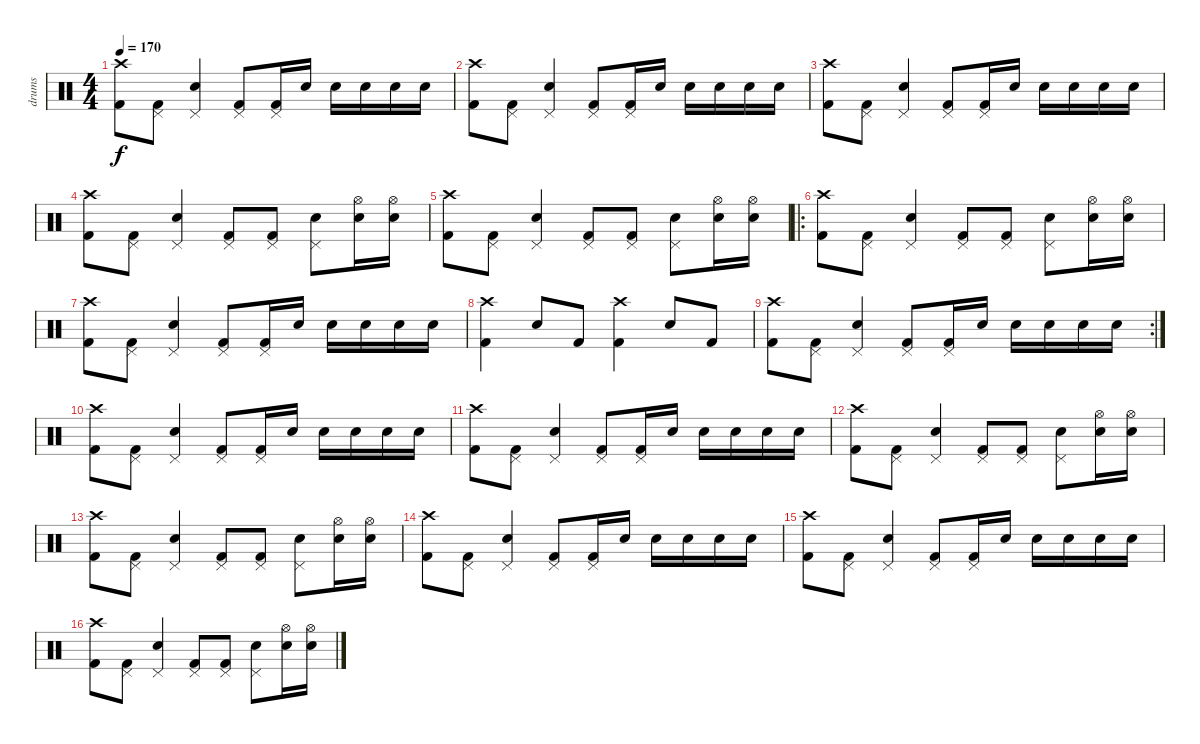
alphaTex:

\track ("drums" "drums") {instrument percussion}
\staff {score}
\articulation defaults
\ts (4 4)
\tempo 170
\clef neutral
\ks c
("Crash high (hit)" "Kick (hit) 2").8{dy f} ("Pedal Hi-Hat (hit)" "Kick (hit) 2").8 ("Pedal Hi-Hat (hit)" "Electric Snare (hit)").4 ("Pedal Hi-Hat (hit)" "Kick (hit) 2").8 ("Pedal Hi-Hat (hit)" "Kick (hit) 2").16 "Electric Snare (hit)".16 "Electric Snare (hit)".16 "Electric Snare (hit)".16 "Electric Snare (hit)".16 "Electric Snare (hit)".16 |
("Crash high (hit)" "Kick (hit) 2").8 ("Pedal Hi-Hat (hit)" "Kick (hit) 2").8 ("Pedal Hi-Hat (hit)" "Electric Snare (hit)").4 ("Pedal Hi-Hat (hit)" "Kick (hit) 2").8 ("Pedal Hi-Hat (hit)" "Kick (hit) 2").16 "Electric Snare (hit)".16 "Electric Snare (hit)".16 "Electric Snare (hit)".16 "Electric Snare (hit)".16 "Electric Snare (hit)".16 |
("Crash high (hit)" "Kick (hit) 2").8 ("Pedal Hi-Hat (hit)" "Kick (hit) 2").8 ("Pedal Hi-Hat (hit)" "Electric Snare (hit)").4 ("Pedal Hi-Hat (hit)" "Kick (hit) 2").8 ("Pedal Hi-Hat (hit)" "Kick (hit) 2").16 "Electric Snare (hit)".16 "Electric Snare (hit)".16 "Electric Snare (hit)".16 "Electric Snare (hit)".16 "Electric Snare (hit)".16 |
("Crash high (hit)" "Kick (hit) 2").8 ("Pedal Hi-Hat (hit)" "Kick (hit) 2").8 ("Pedal Hi-Hat (hit)" "Electric Snare (hit)").4 ("Pedal Hi-Hat (hit)" "Kick (hit) 2").8 ("Pedal Hi-Hat (hit)" "Kick (hit) 2").8 ("Pedal Hi-Hat (hit)" "Electric Snare (hit)").8 ("Hi-Hat (open)" "Electric Snare (hit)").16 ("Hi-Hat (open)" "Electric Snare (hit)").16 |
("Crash high (hit)" "Kick (hit) 2").8 ("Pedal Hi-Hat (hit)" "Kick (hit) 2").8 ("Pedal Hi-Hat (hit)" "Electric Snare (hit)").4 ("Pedal Hi-Hat (hit)" "Kick (hit) 2").8 ("Pedal Hi-Hat (hit)" "Kick (hit) 2").8 ("Pedal Hi-Hat (hit)" "Electric Snare (hit)").8 ("Hi-Hat (open)" "Electric Snare (hit)").16 ("Hi-Hat (open)" "Electric Snare (hit)").16 |
\ro
("Crash high (hit)" "Kick (hit) 2").8 ("Pedal Hi-Hat (hit)" "Kick (hit) 2").8 ("Pedal Hi-Hat (hit)" "Electric Snare (hit)").4 ("Pedal Hi-Hat (hit)" "Kick (hit) 2").8 ("Pedal Hi-Hat (hit)" "Kick (hit) 2").8 ("Pedal Hi-Hat (hit)" "Electric Snare (hit)").8 ("Hi-Hat (open)" "Electric Snare (hit)").16 ("Hi-Hat (open)" "Electric Snare (hit)").16 |
("Crash high (hit)" "Kick (hit) 2").8 ("Pedal Hi-Hat (hit)" "Kick (hit) 2").8 ("Pedal Hi-Hat (hit)" "Electric Snare (hit)").4 ("Pedal Hi-Hat (hit)" "Kick (hit) 2").8 ("Pedal Hi-Hat (hit)" "Kick (hit) 2").16 "Electric Snare (hit)".16 "Electric Snare (hit)".16 "Electric Snare (hit)".16 "Electric Snare (hit)".16 "Electric Snare (hit)".16 |
("Crash high (hit)" "Kick (hit) 2").4 "Electric Snare (hit)".8 "Kick (hit) 2".8 ("Crash high (hit)" "Kick (hit) 2").4 "Electric Snare (hit)".8 "Kick (hit) 2".8 |
\rc 2
("Crash high (hit)" "Kick (hit) 2").8 ("Pedal Hi-Hat (hit)" "Kick (hit) 2").8 ("Pedal Hi-Hat (hit)" "Electric Snare (hit)").4 ("Pedal Hi-Hat (hit)" "Kick (hit) 2").8 ("Pedal Hi-Hat (hit)" "Kick (hit) 2").16 "Electric Snare (hit)".16 "Electric Snare (hit)".16 "Electric Snare (hit)".16 "Electric Snare (hit)".16 "Electric Snare (hit)".16 |
("Crash high (hit)" "Kick (hit) 2").8 ("Pedal Hi-Hat (hit)" "Kick (hit) 2").8 ("Pedal Hi-Hat (hit)" "Electric Snare (hit)").4 ("Pedal Hi-Hat (hit)" "Kick (hit) 2").8 ("Pedal Hi-Hat (hit)" "Kick (hit) 2").16 "Electric Snare (hit)".16 "Electric Snare (hit)".16 "Electric Snare (hit)".16 "Electric Snare (hit)".16 "Electric Snare (hit)".16 |
("Crash high (hit)" "Kick (hit) 2").8 ("Pedal Hi-Hat (hit)" "Kick (hit) 2").8 ("Pedal Hi-Hat (hit)" "Electric Snare (hit)").4 ("Pedal Hi-Hat (hit)" "Kick (hit) 2").8 ("Pedal Hi-Hat (hit)" "Kick (hit) 2").16 "Electric Snare (hit)".16 "Electric Snare (hit)".16 "Electric Snare (hit)".16 "Electric Snare (hit)".16 "Electric Snare (hit)".16 |
("Crash high (hit)" "Kick (hit) 2").8 ("Pedal Hi-Hat (hit)" "Kick (hit) 2").8 ("Pedal Hi-Hat (hit)" "Electric Snare (hit)").4 ("Pedal Hi-Hat (hit)" "Kick (hit) 2").8 ("Pedal Hi-Hat (hit)" "Kick (hit) 2").8 ("Pedal Hi-Hat (hit)" "Electric Snare (hit)").8 ("Hi-Hat (open)" "Electric Snare (hit)").16 ("Hi-Hat (open)" "Electric Snare (hit)").16 |
("Crash high (hit)" "Kick (hit) 2").8 ("Pedal Hi-Hat (hit)" "Kick (hit) 2").8 ("Pedal Hi-Hat (hit)" "Electric Snare (hit)").4 ("Pedal Hi-Hat (hit)" "Kick (hit) 2").8 ("Pedal Hi-Hat (hit)" "Kick (hit) 2").8 ("Pedal Hi-Hat (hit)" "Electric Snare (hit)").8 ("Hi-Hat (open)" "Electric Snare (hit)").16 ("Hi-Hat (open)" "Electric Snare (hit)").16 |
("Crash high (hit)" "Kick (hit) 2").8 ("Pedal Hi-Hat (hit)" "Kick (hit) 2").8 ("Pedal Hi-Hat (hit)" "Electric Snare (hit)").4 ("Pedal Hi-Hat (hit)" "Kick (hit) 2").8 ("Pedal Hi-Hat (hit)" "Kick (hit) 2").16 "Electric Snare (hit)".16 "Electric Snare (hit)".16 "Electric Snare (hit)".16 "Electric Snare (hit)".16 "Electric Snare (hit)".16 |
("Crash high (hit)" "Kick (hit) 2").8 ("Pedal Hi-Hat (hit)" "Kick (hit) 2").8 ("Pedal Hi-Hat (hit)" "Electric Snare (hit)").4 ("Pedal Hi-Hat (hit)" "Kick (hit) 2").8 ("Pedal Hi-Hat (hit)" "Kick (hit) 2").16 "Electric Snare (hit)".16 "Electric Snare (hit)".16 "Electric Snare (hit)".16 "Electric Snare (hit)".16 "Electric Snare (hit)".16 |
("Crash high (hit)" "Kick (hit) 2").8 ("Pedal Hi-Hat (hit)" "Kick (hit) 2").8 ("Pedal Hi-Hat (hit)" "Electric Snare (hit)").4 ("Pedal Hi-Hat (hit)" "Kick (hit) 2").8 ("Pedal Hi-Hat (hit)" "Kick (hit) 2").8 ("Pedal Hi-Hat (hit)" "Electric Snare (hit)").8 ("Hi-Hat (open)" "Electric Snare (hit)").16 ("Hi-Hat (open)" "Electric Snare (hit)").16
